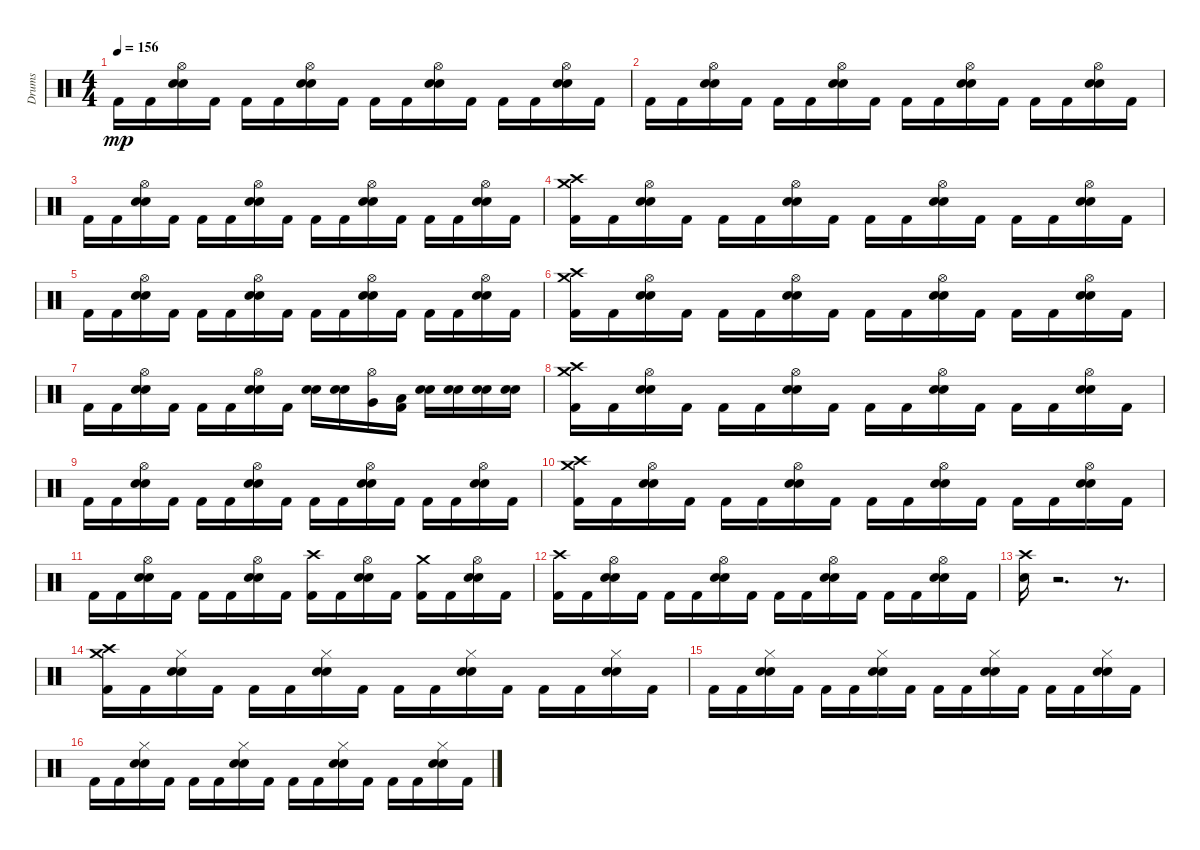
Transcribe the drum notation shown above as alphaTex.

\track ("Drums" "Drums") {instrument percussion}
\staff {score}
\articulation defaults
\ts (4 4)
\tempo 156
\clef neutral
\ks c "Kick (hit) 2".16{dy mp} "Kick (hit) 2".16
("Snare (hit) 2" "Electric Snare (hit)" "Hi-Hat (open)").16 "Kick (hit) 2".16 "Kick (hit) 2".16 "Kick (hit) 2".16 ("Snare (hit) 2" "Electric Snare (hit)" "Hi-Hat (open)").16 "Kick (hit) 2".16 "Kick (hit) 2".16 "Kick (hit) 2".16 ("Hi-Hat (open)" "Snare (hit) 2" "Electric Snare (hit)").16 "Kick (hit) 2".16 "Kick (hit) 2".16 "Kick (hit) 2".16 ("Hi-Hat (open)" "Electric Snare (hit)" "Snare (hit) 2").16 "Kick (hit) 2".16 |
"Kick (hit) 2".16 "Kick (hit) 2".16 ("Electric Snare (hit)" "Snare (hit) 2" "Hi-Hat (open)").16 "Kick (hit) 2".16 "Kick (hit) 2".16 "Kick (hit) 2".16 ("Electric Snare (hit)" "Hi-Hat (open)" "Snare (hit) 2").16 "Kick (hit) 2".16 "Kick (hit) 2".16 "Kick (hit) 2".16 ("Snare (hit) 2" "Hi-Hat (open)" "Electric Snare (hit)").16 "Kick (hit) 2".16 "Kick (hit) 2".16 "Kick (hit) 2".16 ("Electric Snare (hit)" "Snare (hit) 2" "Hi-Hat (open)").16 "Kick (hit) 2".16 |
"Kick (hit) 2".16 "Kick (hit) 2".16 ("Hi-Hat (open)" "Snare (hit) 2" "Electric Snare (hit)").16 "Kick (hit) 2".16 "Kick (hit) 2".16 "Kick (hit) 2".16 ("Hi-Hat (open)" "Snare (hit) 2" "Electric Snare (hit)").16 "Kick (hit) 2".16 "Kick (hit) 2".16 "Kick (hit) 2".16 ("Electric Snare (hit)" "Snare (hit) 2" "Hi-Hat (open)").16 "Kick (hit) 2".16 "Kick (hit) 2".16 "Kick (hit) 2".16 ("Snare (hit) 2" "Hi-Hat (open)" "Electric Snare (hit)").16 "Kick (hit) 2".16 |
("Crash medium (hit)" "Kick (hit) 2" "Crash high (hit)").16 "Kick (hit) 2".16 ("Snare (hit) 2" "Electric Snare (hit)" "Hi-Hat (open)").16 "Kick (hit) 2".16 "Kick (hit) 2".16 "Kick (hit) 2".16 ("Snare (hit) 2" "Electric Snare (hit)" "Hi-Hat (open)").16 "Kick (hit) 2".16 "Kick (hit) 2".16 "Kick (hit) 2".16 ("Electric Snare (hit)" "Hi-Hat (open)" "Snare (hit) 2").16 "Kick (hit) 2".16 "Kick (hit) 2".16 "Kick (hit) 2".16 ("Electric Snare (hit)" "Hi-Hat (open)" "Snare (hit) 2").16 "Kick (hit) 2".16 |
"Kick (hit) 2".16 "Kick (hit) 2".16 ("Snare (hit) 2" "Electric Snare (hit)" "Hi-Hat (open)").16 "Kick (hit) 2".16 "Kick (hit) 2".16 "Kick (hit) 2".16 ("Snare (hit) 2" "Electric Snare (hit)" "Hi-Hat (open)").16 "Kick (hit) 2".16 "Kick (hit) 2".16 "Kick (hit) 2".16 ("Electric Snare (hit)" "Snare (hit) 2" "Hi-Hat (open)").16 "Kick (hit) 2".16 "Kick (hit) 2".16 "Kick (hit) 2".16 ("Hi-Hat (open)" "Electric Snare (hit)" "Snare (hit) 2").16 "Kick (hit) 2".16 |
("Crash medium (hit)" "Kick (hit) 2" "Crash high (hit)").16 "Kick (hit) 2".16 ("Snare (hit) 2" "Hi-Hat (open)" "Electric Snare (hit)").16 "Kick (hit) 2".16 "Kick (hit) 2".16 "Kick (hit) 2".16 ("Snare (hit) 2" "Electric Snare (hit)" "Hi-Hat (open)").16 "Kick (hit) 2".16 "Kick (hit) 2".16 "Kick (hit) 2".16 ("Electric Snare (hit)" "Snare (hit) 2" "Hi-Hat (open)").16 "Kick (hit) 2".16 "Kick (hit) 2".16 "Kick (hit) 2".16 ("Snare (hit) 2" "Hi-Hat (open)" "Electric Snare (hit)").16 "Kick (hit) 2".16 |
"Kick (hit) 2".16 "Kick (hit) 2".16 ("Snare (hit) 2" "Hi-Hat (open)" "Electric Snare (hit)").16 "Kick (hit) 2".16 "Kick (hit) 2".16 "Kick (hit) 2".16 ("Snare (hit) 2" "Electric Snare (hit)" "Hi-Hat (open)").16 "Kick (hit) 2".16 ("Snare (hit) 2" "Electric Snare (hit)").16 ("Snare (hit) 2" "Electric Snare (hit)").16 ("Very Low Tom (hit)" "Hi-Hat (open)").16 ("Low Floor Tom (hit)" "Kick (hit) 2").16 ("Snare (hit) 2" "Electric Snare (hit)").16 ("Snare (hit) 2" "Electric Snare (hit)").16 ("Electric Snare (hit)" "Snare (hit) 2").16 ("Snare (hit) 2" "Electric Snare (hit)").16 |
("Crash high (hit)" "Kick (hit) 2" "Crash medium (hit)").16 "Kick (hit) 2".16 ("Electric Snare (hit)" "Hi-Hat (open)" "Snare (hit) 2").16 "Kick (hit) 2".16 "Kick (hit) 2".16 "Kick (hit) 2".16 ("Snare (hit) 2" "Hi-Hat (open)" "Electric Snare (hit)").16 "Kick (hit) 2".16 "Kick (hit) 2".16 "Kick (hit) 2".16 ("Snare (hit) 2" "Hi-Hat (open)" "Electric Snare (hit)").16 "Kick (hit) 2".16 "Kick (hit) 2".16 "Kick (hit) 2".16 ("Electric Snare (hit)" "Hi-Hat (open)" "Snare (hit) 2").16 "Kick (hit) 2".16 |
"Kick (hit) 2".16 "Kick (hit) 2".16 ("Electric Snare (hit)" "Snare (hit) 2" "Hi-Hat (open)").16 "Kick (hit) 2".16 "Kick (hit) 2".16 "Kick (hit) 2".16 ("Hi-Hat (open)" "Electric Snare (hit)" "Snare (hit) 2").16 "Kick (hit) 2".16 "Kick (hit) 2".16 "Kick (hit) 2".16 ("Snare (hit) 2" "Electric Snare (hit)" "Hi-Hat (open)").16 "Kick (hit) 2".16 "Kick (hit) 2".16 "Kick (hit) 2".16 ("Hi-Hat (open)" "Electric Snare (hit)" "Snare (hit) 2").16 "Kick (hit) 2".16 |
("Crash medium (hit)" "Kick (hit) 2" "Crash high (hit)").16 "Kick (hit) 2".16 ("Hi-Hat (open)" "Electric Snare (hit)" "Snare (hit) 2").16 "Kick (hit) 2".16 "Kick (hit) 2".16 "Kick (hit) 2".16 ("Hi-Hat (open)" "Snare (hit) 2" "Electric Snare (hit)").16 "Kick (hit) 2".16 "Kick (hit) 2".16 "Kick (hit) 2".16 ("Electric Snare (hit)" "Hi-Hat (open)" "Snare (hit) 2").16 "Kick (hit) 2".16 "Kick (hit) 2".16 "Kick (hit) 2".16 ("Hi-Hat (open)" "Electric Snare (hit)" "Snare (hit) 2").16 "Kick (hit) 2".16 |
"Kick (hit) 2".16 "Kick (hit) 2".16 ("Hi-Hat (open)" "Snare (hit) 2" "Electric Snare (hit)").16 "Kick (hit) 2".16 "Kick (hit) 2".16 "Kick (hit) 2".16 ("Electric Snare (hit)" "Snare (hit) 2" "Hi-Hat (open)").16 "Kick (hit) 2".16 ("Kick (hit) 2" "Crash high (hit)").16 "Kick (hit) 2".16 ("Hi-Hat (open)" "Snare (hit) 2" "Electric Snare (hit)").16 "Kick (hit) 2".16 ("Kick (hit) 2" "Crash medium (hit)").16 "Kick (hit) 2".16 ("Hi-Hat (open)" "Snare (hit) 2" "Electric Snare (hit)").16 "Kick (hit) 2".16 |
("Kick (hit) 2" "Crash high (hit)").16 "Kick (hit) 2".16 ("Snare (hit) 2" "Electric Snare (hit)" "Hi-Hat (open)").16 "Kick (hit) 2".16 "Kick (hit) 2".16 "Kick (hit) 2".16 ("Hi-Hat (open)" "Electric Snare (hit)" "Snare (hit) 2").16 "Kick (hit) 2".16 "Kick (hit) 2".16 "Kick (hit) 2".16 ("Electric Snare (hit)" "Snare (hit) 2" "Hi-Hat (open)").16 "Kick (hit) 2".16 "Kick (hit) 2".16 "Kick (hit) 2".16 ("Hi-Hat (open)" "Electric Snare (hit)" "Snare (hit) 2").16 "Kick (hit) 2".16 |
("Snare (hit) 2" "Crash high (hit)").16 r.2{d} r.8{d} |
("Kick (hit) 2" "Crash medium (hit)" "Crash high (hit)").16 "Kick (hit) 2".16 ("Electric Snare (hit)" "Hi-Hat (closed)" "Snare (hit) 2").16 "Kick (hit) 2".16 "Kick (hit) 2".16 "Kick (hit) 2".16 ("Snare (hit) 2" "Hi-Hat (closed)" "Electric Snare (hit)").16 "Kick (hit) 2".16 "Kick (hit) 2".16 "Kick (hit) 2".16 ("Electric Snare (hit)" "Hi-Hat (closed)" "Snare (hit) 2").16 "Kick (hit) 2".16 "Kick (hit) 2".16 "Kick (hit) 2".16 ("Snare (hit) 2" "Electric Snare (hit)" "Hi-Hat (closed)").16 "Kick (hit) 2".16 |
"Kick (hit) 2".16 "Kick (hit) 2".16 ("Hi-Hat (closed)" "Electric Snare (hit)" "Snare (hit) 2").16 "Kick (hit) 2".16 "Kick (hit) 2".16 "Kick (hit) 2".16 ("Electric Snare (hit)" "Snare (hit) 2" "Hi-Hat (closed)").16 "Kick (hit) 2".16 "Kick (hit) 2".16 "Kick (hit) 2".16 ("Snare (hit) 2" "Hi-Hat (closed)" "Electric Snare (hit)").16 "Kick (hit) 2".16 "Kick (hit) 2".16 "Kick (hit) 2".16 ("Electric Snare (hit)" "Snare (hit) 2" "Hi-Hat (closed)").16 "Kick (hit) 2".16 |
"Kick (hit) 2".16 "Kick (hit) 2".16 ("Electric Snare (hit)" "Hi-Hat (closed)" "Snare (hit) 2").16 "Kick (hit) 2".16 "Kick (hit) 2".16 "Kick (hit) 2".16 ("Electric Snare (hit)" "Hi-Hat (closed)" "Snare (hit) 2").16 "Kick (hit) 2".16 "Kick (hit) 2".16 "Kick (hit) 2".16 ("Snare (hit) 2" "Electric Snare (hit)" "Hi-Hat (closed)").16 "Kick (hit) 2".16 "Kick (hit) 2".16 "Kick (hit) 2".16 ("Electric Snare (hit)" "Hi-Hat (closed)" "Snare (hit) 2").16 "Kick (hit) 2".16
